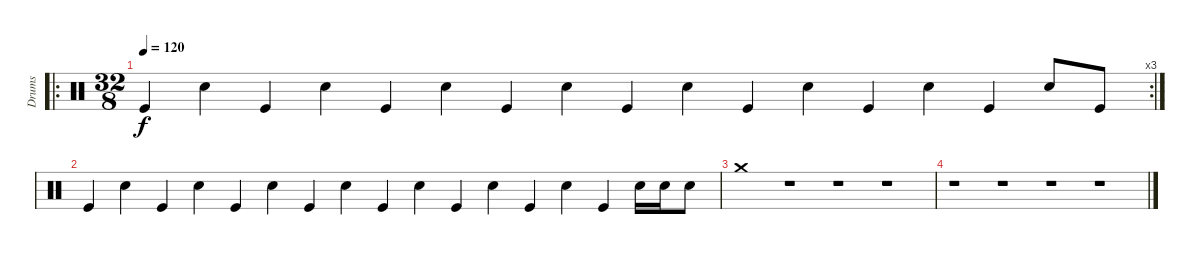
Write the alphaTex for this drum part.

\track ("Drums" "Drums") {instrument percussion}
\staff {score}
\articulation defaults
\ro
\rc 3
\ts (32 8)
\tempo 120
\clef neutral
\ks c "Kick (hit)".4{dy f} "Snare (hit) 2".4 "Kick (hit)".4 "Snare (hit) 2".4 "Kick (hit)".4 "Snare (hit) 2".4 "Kick (hit)".4 "Snare (hit) 2".4 "Kick (hit)".4 "Snare (hit) 2".4 "Kick (hit)".4 "Snare (hit) 2".4 "Kick (hit)".4 "Snare (hit) 2".4 "Kick (hit)".4 "Snare (hit) 2".8 "Kick (hit)".8
|
"Kick (hit)".4 "Snare (hit) 2".4 "Kick (hit)".4 "Snare (hit) 2".4 "Kick (hit)".4 "Snare (hit) 2".4 "Kick (hit)".4 "Snare (hit) 2".4 "Kick (hit)".4 "Snare (hit) 2".4 "Kick (hit)".4 "Snare (hit) 2".4 "Kick (hit)".4 "Snare (hit) 2".4 "Kick (hit)".4 "Snare (hit) 2".16 "Snare (hit) 2".16 "Snare (hit) 2".8 |
"Crash medium (hit)".1 r.1 r.1 r.1 |
r.1 r.1 r.1 r.1
